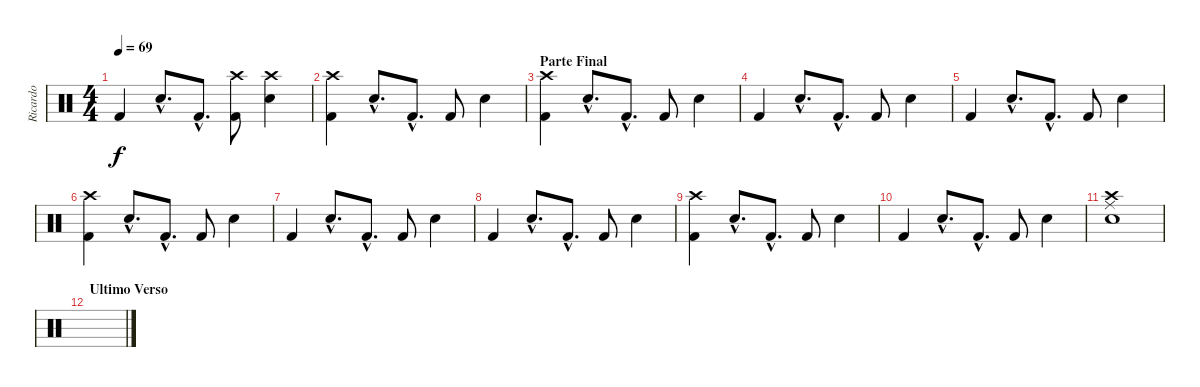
\track ("Ricardo" "Ricardo") {instrument percussion}
\staff {score}
\articulation defaults
\ts (4 4)
\tempo 69
\clef neutral
\ks c "Kick (hit) 2".4{dy f} "Electric Snare (hit)"{hac}.8{d} "Kick (hit) 2"{hac}.8{d}
("Kick (hit) 2" "Crash high (hit)").8 ("Electric Snare (hit)" "Crash high (hit)").4 |
("Kick (hit) 2" "Crash high (hit)").4 "Electric Snare (hit)"{hac}.8{d} "Kick (hit) 2"{hac}.8{d} "Kick (hit) 2".8 "Electric Snare (hit)".4 |
\section ("" "Parte Final")
("Kick (hit) 2" "Crash high (hit)").4 "Electric Snare (hit)"{hac}.8{d} "Kick (hit) 2"{hac}.8{d} "Kick (hit) 2".8 "Electric Snare (hit)".4 |
"Kick (hit) 2".4 "Electric Snare (hit)"{hac}.8{d} "Kick (hit) 2"{hac}.8{d} "Kick (hit) 2".8 "Electric Snare (hit)".4 |
"Kick (hit) 2".4 "Electric Snare (hit)"{hac}.8{d} "Kick (hit) 2"{hac}.8{d} "Kick (hit) 2".8 "Electric Snare (hit)".4 |
("Kick (hit) 2" "Crash high (hit)").4 "Electric Snare (hit)"{hac}.8{d} "Kick (hit) 2"{hac}.8{d} "Kick (hit) 2".8 "Electric Snare (hit)".4 |
"Kick (hit) 2".4 "Electric Snare (hit)"{hac}.8{d} "Kick (hit) 2"{hac}.8{d} "Kick (hit) 2".8 "Electric Snare (hit)".4 |
"Kick (hit) 2".4 "Electric Snare (hit)"{hac}.8{d} "Kick (hit) 2"{hac}.8{d} "Kick (hit) 2".8 "Electric Snare (hit)".4 |
("Kick (hit) 2" "Crash high (hit)").4 "Electric Snare (hit)"{hac}.8{d} "Kick (hit) 2"{hac}.8{d} "Kick (hit) 2".8 "Electric Snare (hit)".4 |
"Kick (hit) 2".4 "Electric Snare (hit)"{hac}.8{d} "Kick (hit) 2"{hac}.8{d} "Kick (hit) 2".8 "Electric Snare (hit)".4 |
("Electric Snare (hit)" "Ride (middle)" "Crash high (hit)").1 |
\section ("" "Ultimo Verso")
